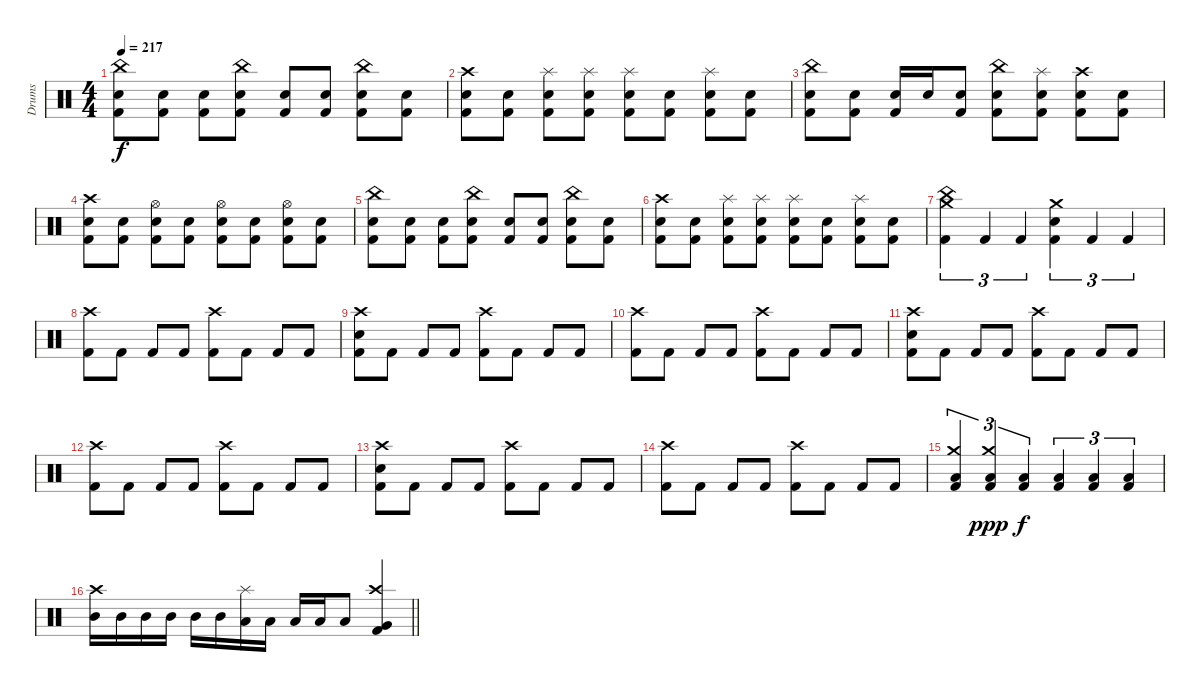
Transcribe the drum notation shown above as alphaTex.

\track ("Drums" "Drums") {instrument percussion}
\staff {score}
\articulation defaults
\ts (4 4)
\tempo 217
\clef neutral
\ks c
("China (hit)" "Electric Snare (hit)" "Kick (hit) 2").8{dy f} ("Electric Snare (hit)" "Kick (hit) 2").8 ("Electric Snare (hit)" "Kick (hit) 2").8 ("China (hit)" "Electric Snare (hit)" "Kick (hit) 2").8 ("Electric Snare (hit)" "Kick (hit) 2").8 ("Electric Snare (hit)" "Kick (hit) 2").8 ("China (hit)" "Electric Snare (hit)" "Kick (hit) 2").8 ("Electric Snare (hit)" "Kick (hit) 2").8 |
("Crash high (hit)" "Electric Snare (hit)" "Kick (hit) 2").8 ("Electric Snare (hit)" "Kick (hit) 2").8 ("Splash (hit)" "Electric Snare (hit)" "Kick (hit) 2").8 ("Splash (hit)" "Electric Snare (hit)" "Kick (hit) 2").8 ("Splash (hit)" "Electric Snare (hit)" "Kick (hit) 2").8 ("Electric Snare (hit)" "Kick (hit) 2").8 ("Splash (hit)" "Electric Snare (hit)" "Kick (hit) 2").8 ("Electric Snare (hit)" "Kick (hit) 2").8 |
("China (hit)" "Electric Snare (hit)" "Kick (hit) 2").8 ("Electric Snare (hit)" "Kick (hit) 2").8 ("Electric Snare (hit)" "Kick (hit) 2").16 "Electric Snare (hit)".16 ("Electric Snare (hit)" "Kick (hit) 2").8 ("China (hit)" "Electric Snare (hit)" "Kick (hit) 2").8 ("Splash (hit)" "Electric Snare (hit)" "Kick (hit) 2").8 ("Crash high (hit)" "Electric Snare (hit)" "Kick (hit) 2").8 ("Electric Snare (hit)" "Kick (hit) 2").8 |
("Crash high (hit)" "Electric Snare (hit)" "Kick (hit) 2").8 ("Electric Snare (hit)" "Kick (hit) 2").8 ("Hi-Hat (open)" "Electric Snare (hit)" "Kick (hit) 2").8 ("Electric Snare (hit)" "Kick (hit) 2").8 ("Hi-Hat (open)" "Electric Snare (hit)" "Kick (hit) 2").8 ("Electric Snare (hit)" "Kick (hit) 2").8 ("Hi-Hat (open)" "Electric Snare (hit)" "Kick (hit) 2").8 ("Electric Snare (hit)" "Kick (hit) 2").8 |
("China (hit)" "Electric Snare (hit)" "Kick (hit) 2").8 ("Electric Snare (hit)" "Kick (hit) 2").8 ("Electric Snare (hit)" "Kick (hit) 2").8 ("China (hit)" "Electric Snare (hit)" "Kick (hit) 2").8 ("Electric Snare (hit)" "Kick (hit) 2").8 ("Electric Snare (hit)" "Kick (hit) 2").8 ("China (hit)" "Electric Snare (hit)" "Kick (hit) 2").8 ("Electric Snare (hit)" "Kick (hit) 2").8 |
("Crash high (hit)" "Electric Snare (hit)" "Kick (hit) 2").8 ("Electric Snare (hit)" "Kick (hit) 2").8 ("Splash (hit)" "Electric Snare (hit)" "Kick (hit) 2").8 ("Splash (hit)" "Electric Snare (hit)" "Kick (hit) 2").8 ("Splash (hit)" "Electric Snare (hit)" "Kick (hit) 2").8 ("Electric Snare (hit)" "Kick (hit) 2").8 ("Splash (hit)" "Electric Snare (hit)" "Kick (hit) 2").8 ("Electric Snare (hit)" "Kick (hit) 2").8 |
("Crash medium (hit)" "China (hit)" "Kick (hit) 2").4{tu (3 2)} "Kick (hit) 2".4{tu (3 2)} "Kick (hit) 2".4{tu (3 2)} ("Crash medium (hit)" "Electric Snare (hit)" "Kick (hit) 2").4{tu (3 2)} "Kick (hit) 2".4{tu (3 2)} "Kick (hit) 2".4{tu (3 2)} |
("Crash high (hit)" "Kick (hit) 2").8 "Kick (hit) 2".8 "Kick (hit) 2".8 "Kick (hit) 2".8 ("Crash high (hit)" "Kick (hit) 2").8 "Kick (hit) 2".8 "Kick (hit) 2".8 "Kick (hit) 2".8 |
("Crash high (hit)" "Electric Snare (hit)" "Kick (hit) 2").8 "Kick (hit) 2".8 "Kick (hit) 2".8 "Kick (hit) 2".8 ("Crash high (hit)" "Kick (hit) 2").8 "Kick (hit) 2".8 "Kick (hit) 2".8 "Kick (hit) 2".8 |
("Crash high (hit)" "Kick (hit) 2").8 "Kick (hit) 2".8 "Kick (hit) 2".8 "Kick (hit) 2".8 ("Crash high (hit)" "Kick (hit) 2").8 "Kick (hit) 2".8 "Kick (hit) 2".8 "Kick (hit) 2".8 |
("Crash high (hit)" "Electric Snare (hit)" "Kick (hit) 2").8 "Kick (hit) 2".8 "Kick (hit) 2".8 "Kick (hit) 2".8 ("Crash high (hit)" "Kick (hit) 2").8 "Kick (hit) 2".8 "Kick (hit) 2".8 "Kick (hit) 2".8 |
("Crash high (hit)" "Kick (hit) 2").8 "Kick (hit) 2".8 "Kick (hit) 2".8 "Kick (hit) 2".8 ("Crash high (hit)" "Kick (hit) 2").8 "Kick (hit) 2".8 "Kick (hit) 2".8 "Kick (hit) 2".8 |
("Crash high (hit)" "Electric Snare (hit)" "Kick (hit) 2").8 "Kick (hit) 2".8 "Kick (hit) 2".8 "Kick (hit) 2".8 ("Crash high (hit)" "Kick (hit) 2").8 "Kick (hit) 2".8 "Kick (hit) 2".8 "Kick (hit) 2".8 |
("Crash high (hit)" "Kick (hit) 2").8 "Kick (hit) 2".8 "Kick (hit) 2".8 "Kick (hit) 2".8 ("Crash high (hit)" "Kick (hit) 2").8 "Kick (hit) 2".8 "Kick (hit) 2".8 "Kick (hit) 2".8 |
("Crash medium (hit)" "Low Floor Tom (hit)" "Kick (hit) 2").4{tu (3 2)} ("Crash medium (hit)" "Low Floor Tom (hit)" "Kick (hit) 2").4{tu (3 2) dy ppp} ("Low Floor Tom (hit)" "Kick (hit) 2").4{tu (3 2) dy f} ("Low Floor Tom (hit)" "Kick (hit) 2").4{tu (3 2)} ("Low Floor Tom (hit)" "Kick (hit) 2").4{tu (3 2)} ("Low Floor Tom (hit)" "Kick (hit) 2").4{tu (3 2)} |
\barLineRight lightlight
("Crash high (hit)" "Mid Tom (hit)").16 "Mid Tom (hit)".16 "Mid Tom (hit)".16 "Mid Tom (hit)".16 "Mid Tom (hit)".16 "Mid Tom (hit)".16 ("Splash (hit)" "Low Tom (hit)").16 "Low Tom (hit)".16 "Low Tom (hit)".16 "Low Tom (hit)".16 "Low Tom (hit)".8 ("Crash high (hit)" "Very Low Tom (hit)" "Kick (hit) 2").4
